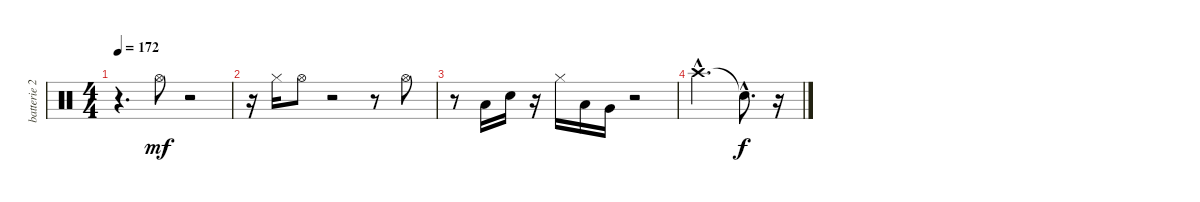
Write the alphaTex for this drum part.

\track ("batterie 2" "batterie 2") {instrument percussion}
\staff {score}
\articulation defaults
\ts (4 4)
\tempo 172
\clef neutral
\ks c
r.4{d dy mf} "Hi-Hat (open)".8 r.2 |
r.16 "Hi-Hat (closed)".16 "Hi-Hat (open)".8 r.2 r.8 "Hi-Hat (open)".8 |
r.8 "Low Floor Tom (hit)".16 "Electric Snare (hit)".16 r.16 "Hi-Hat (closed)".16 "Low Tom (hit)".16 "Very Low Tom (hit)".16 r.2 |
"Crash high (hit)"{hac}.2{d} "Snare (hit)"{hac t}.8{d dy f} r.16
